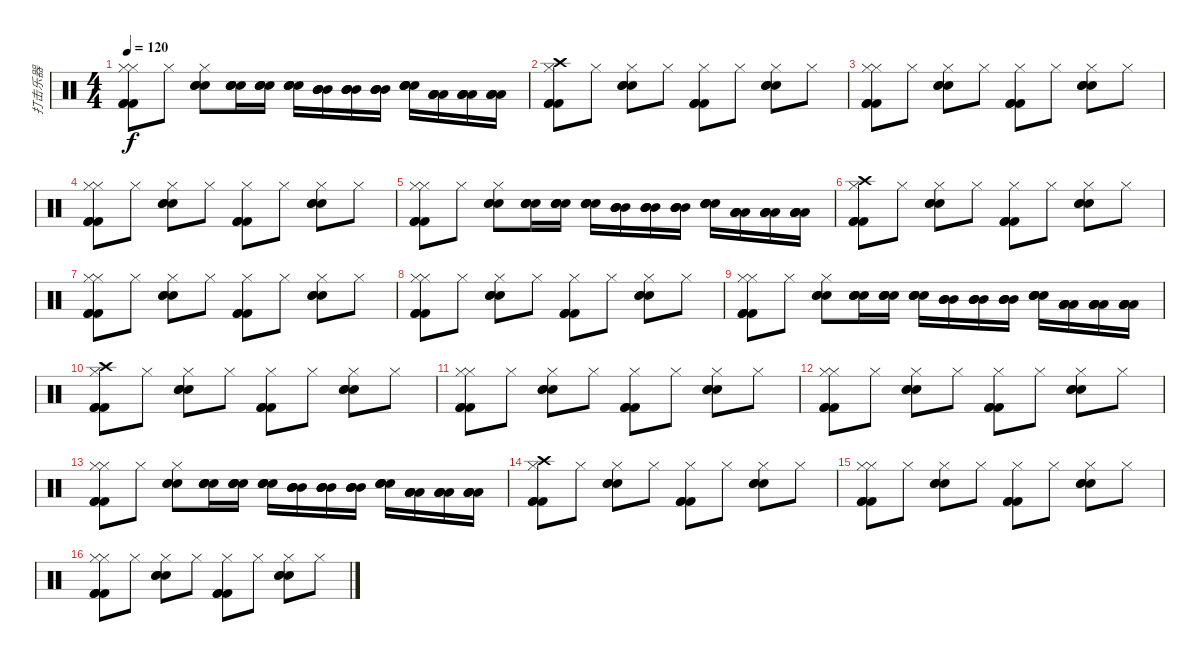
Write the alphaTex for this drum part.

\track ("打击乐器" "打击乐器") {instrument percussion}
\staff {score}
\articulation defaults
\ts (4 4)
\tempo 120
\clef neutral
\ks c
("Kick (hit) 2" "Kick (hit) 2" "Kick (hit) 2" "Hi-Hat (closed)" "Hi-Hat (closed)").8{dy f} "Hi-Hat (closed)".8 ("Snare (hit) 2" "Snare (hit) 2" "Snare (hit) 2" "Hi-Hat (closed)").8 ("Snare (hit) 2" "Snare (hit) 2" "Snare (hit) 2" "Snare (hit) 2").16 ("Snare (hit) 2" "Snare (hit) 2" "Snare (hit) 2" "Snare (hit) 2").16 ("Snare (hit) 2" "Snare (hit) 2" "Snare (hit) 2" "Snare (hit) 2").16 ("Mid Tom (hit)" "Mid Tom (hit)" "Mid Tom (hit)" "Mid Tom (hit)").16 ("Mid Tom (hit)" "Mid Tom (hit)" "Mid Tom (hit)" "Mid Tom (hit)").16 ("Mid Tom (hit)" "Mid Tom (hit)" "Mid Tom (hit)" "Mid Tom (hit)").16 ("Snare (hit) 2" "Snare (hit) 2" "Snare (hit) 2" "Snare (hit) 2").16 ("Low Tom (hit)" "Low Tom (hit)" "Low Tom (hit)" "Low Tom (hit)").16 ("Low Tom (hit)" "Low Tom (hit)" "Low Tom (hit)" "Low Tom (hit)").16 ("Low Tom (hit)" "Low Tom (hit)" "Low Tom (hit)" "Low Tom (hit)").16 |
("Kick (hit) 2" "Kick (hit) 2" "Kick (hit) 2" "Hi-Hat (closed)" "Crash high (hit)").8 "Hi-Hat (closed)".8 ("Snare (hit) 2" "Snare (hit) 2" "Snare (hit) 2" "Hi-Hat (closed)").8 "Hi-Hat (closed)".8 ("Kick (hit) 2" "Kick (hit) 2" "Kick (hit) 2" "Hi-Hat (closed)").8 "Hi-Hat (closed)".8 ("Snare (hit) 2" "Snare (hit) 2" "Snare (hit) 2" "Hi-Hat (closed)").8 "Hi-Hat (closed)".8 |
("Kick (hit) 2" "Kick (hit) 2" "Kick (hit) 2" "Hi-Hat (closed)" "Hi-Hat (closed)").8 "Hi-Hat (closed)".8 ("Snare (hit) 2" "Snare (hit) 2" "Snare (hit) 2" "Hi-Hat (closed)").8 "Hi-Hat (closed)".8 ("Kick (hit) 2" "Kick (hit) 2" "Kick (hit) 2" "Hi-Hat (closed)").8 "Hi-Hat (closed)".8 ("Snare (hit) 2" "Snare (hit) 2" "Snare (hit) 2" "Hi-Hat (closed)").8 "Hi-Hat (closed)".8 |
("Kick (hit) 2" "Kick (hit) 2" "Kick (hit) 2" "Hi-Hat (closed)" "Hi-Hat (closed)").8 "Hi-Hat (closed)".8 ("Snare (hit) 2" "Snare (hit) 2" "Snare (hit) 2" "Hi-Hat (closed)").8 "Hi-Hat (closed)".8 ("Kick (hit) 2" "Kick (hit) 2" "Kick (hit) 2" "Hi-Hat (closed)").8 "Hi-Hat (closed)".8 ("Snare (hit) 2" "Snare (hit) 2" "Snare (hit) 2" "Hi-Hat (closed)").8 "Hi-Hat (closed)".8 |
("Kick (hit) 2" "Kick (hit) 2" "Kick (hit) 2" "Hi-Hat (closed)" "Hi-Hat (closed)").8 "Hi-Hat (closed)".8 ("Snare (hit) 2" "Snare (hit) 2" "Snare (hit) 2" "Hi-Hat (closed)").8 ("Snare (hit) 2" "Snare (hit) 2" "Snare (hit) 2" "Snare (hit) 2").16 ("Snare (hit) 2" "Snare (hit) 2" "Snare (hit) 2" "Snare (hit) 2").16 ("Snare (hit) 2" "Snare (hit) 2" "Snare (hit) 2" "Snare (hit) 2").16 ("Mid Tom (hit)" "Mid Tom (hit)" "Mid Tom (hit)" "Mid Tom (hit)").16 ("Mid Tom (hit)" "Mid Tom (hit)" "Mid Tom (hit)" "Mid Tom (hit)").16 ("Mid Tom (hit)" "Mid Tom (hit)" "Mid Tom (hit)" "Mid Tom (hit)").16 ("Snare (hit) 2" "Snare (hit) 2" "Snare (hit) 2" "Snare (hit) 2").16 ("Low Tom (hit)" "Low Tom (hit)" "Low Tom (hit)" "Low Tom (hit)").16 ("Low Tom (hit)" "Low Tom (hit)" "Low Tom (hit)" "Low Tom (hit)").16 ("Low Tom (hit)" "Low Tom (hit)" "Low Tom (hit)" "Low Tom (hit)").16 |
("Kick (hit) 2" "Kick (hit) 2" "Kick (hit) 2" "Hi-Hat (closed)" "Crash high (hit)").8 "Hi-Hat (closed)".8 ("Snare (hit) 2" "Snare (hit) 2" "Snare (hit) 2" "Hi-Hat (closed)").8 "Hi-Hat (closed)".8 ("Kick (hit) 2" "Kick (hit) 2" "Kick (hit) 2" "Hi-Hat (closed)").8 "Hi-Hat (closed)".8 ("Snare (hit) 2" "Snare (hit) 2" "Snare (hit) 2" "Hi-Hat (closed)").8 "Hi-Hat (closed)".8 |
("Kick (hit) 2" "Kick (hit) 2" "Kick (hit) 2" "Hi-Hat (closed)" "Hi-Hat (closed)").8 "Hi-Hat (closed)".8 ("Snare (hit) 2" "Snare (hit) 2" "Snare (hit) 2" "Hi-Hat (closed)").8 "Hi-Hat (closed)".8 ("Kick (hit) 2" "Kick (hit) 2" "Kick (hit) 2" "Hi-Hat (closed)").8 "Hi-Hat (closed)".8 ("Snare (hit) 2" "Snare (hit) 2" "Snare (hit) 2" "Hi-Hat (closed)").8 "Hi-Hat (closed)".8 |
("Kick (hit) 2" "Kick (hit) 2" "Kick (hit) 2" "Hi-Hat (closed)" "Hi-Hat (closed)").8 "Hi-Hat (closed)".8 ("Snare (hit) 2" "Snare (hit) 2" "Snare (hit) 2" "Hi-Hat (closed)").8 "Hi-Hat (closed)".8 ("Kick (hit) 2" "Kick (hit) 2" "Kick (hit) 2" "Hi-Hat (closed)").8 "Hi-Hat (closed)".8 ("Snare (hit) 2" "Snare (hit) 2" "Snare (hit) 2" "Hi-Hat (closed)").8 "Hi-Hat (closed)".8 |
("Kick (hit) 2" "Kick (hit) 2" "Kick (hit) 2" "Hi-Hat (closed)" "Hi-Hat (closed)").8 "Hi-Hat (closed)".8 ("Snare (hit) 2" "Snare (hit) 2" "Snare (hit) 2" "Hi-Hat (closed)").8 ("Snare (hit) 2" "Snare (hit) 2" "Snare (hit) 2" "Snare (hit) 2").16 ("Snare (hit) 2" "Snare (hit) 2" "Snare (hit) 2" "Snare (hit) 2").16 ("Snare (hit) 2" "Snare (hit) 2" "Snare (hit) 2" "Snare (hit) 2").16 ("Mid Tom (hit)" "Mid Tom (hit)" "Mid Tom (hit)" "Mid Tom (hit)").16 ("Mid Tom (hit)" "Mid Tom (hit)" "Mid Tom (hit)" "Mid Tom (hit)").16 ("Mid Tom (hit)" "Mid Tom (hit)" "Mid Tom (hit)" "Mid Tom (hit)").16 ("Snare (hit) 2" "Snare (hit) 2" "Snare (hit) 2" "Snare (hit) 2").16 ("Low Tom (hit)" "Low Tom (hit)" "Low Tom (hit)" "Low Tom (hit)").16 ("Low Tom (hit)" "Low Tom (hit)" "Low Tom (hit)" "Low Tom (hit)").16 ("Low Tom (hit)" "Low Tom (hit)" "Low Tom (hit)" "Low Tom (hit)").16 |
("Kick (hit) 2" "Kick (hit) 2" "Kick (hit) 2" "Hi-Hat (closed)" "Crash high (hit)").8 "Hi-Hat (closed)".8 ("Snare (hit) 2" "Snare (hit) 2" "Snare (hit) 2" "Hi-Hat (closed)").8 "Hi-Hat (closed)".8 ("Kick (hit) 2" "Kick (hit) 2" "Kick (hit) 2" "Hi-Hat (closed)").8 "Hi-Hat (closed)".8 ("Snare (hit) 2" "Snare (hit) 2" "Snare (hit) 2" "Hi-Hat (closed)").8 "Hi-Hat (closed)".8 |
("Kick (hit) 2" "Kick (hit) 2" "Kick (hit) 2" "Hi-Hat (closed)" "Hi-Hat (closed)").8 "Hi-Hat (closed)".8 ("Snare (hit) 2" "Snare (hit) 2" "Snare (hit) 2" "Hi-Hat (closed)").8 "Hi-Hat (closed)".8 ("Kick (hit) 2" "Kick (hit) 2" "Kick (hit) 2" "Hi-Hat (closed)").8 "Hi-Hat (closed)".8 ("Snare (hit) 2" "Snare (hit) 2" "Snare (hit) 2" "Hi-Hat (closed)").8 "Hi-Hat (closed)".8 |
("Kick (hit) 2" "Kick (hit) 2" "Kick (hit) 2" "Hi-Hat (closed)" "Hi-Hat (closed)").8 "Hi-Hat (closed)".8 ("Snare (hit) 2" "Snare (hit) 2" "Snare (hit) 2" "Hi-Hat (closed)").8 "Hi-Hat (closed)".8 ("Kick (hit) 2" "Kick (hit) 2" "Kick (hit) 2" "Hi-Hat (closed)").8 "Hi-Hat (closed)".8 ("Snare (hit) 2" "Snare (hit) 2" "Snare (hit) 2" "Hi-Hat (closed)").8 "Hi-Hat (closed)".8 |
("Kick (hit) 2" "Kick (hit) 2" "Kick (hit) 2" "Hi-Hat (closed)" "Hi-Hat (closed)").8 "Hi-Hat (closed)".8 ("Snare (hit) 2" "Snare (hit) 2" "Snare (hit) 2" "Hi-Hat (closed)").8 ("Snare (hit) 2" "Snare (hit) 2" "Snare (hit) 2" "Snare (hit) 2").16 ("Snare (hit) 2" "Snare (hit) 2" "Snare (hit) 2" "Snare (hit) 2").16 ("Snare (hit) 2" "Snare (hit) 2" "Snare (hit) 2" "Snare (hit) 2").16 ("Mid Tom (hit)" "Mid Tom (hit)" "Mid Tom (hit)" "Mid Tom (hit)").16 ("Mid Tom (hit)" "Mid Tom (hit)" "Mid Tom (hit)" "Mid Tom (hit)").16 ("Mid Tom (hit)" "Mid Tom (hit)" "Mid Tom (hit)" "Mid Tom (hit)").16 ("Snare (hit) 2" "Snare (hit) 2" "Snare (hit) 2" "Snare (hit) 2").16 ("Low Tom (hit)" "Low Tom (hit)" "Low Tom (hit)" "Low Tom (hit)").16 ("Low Tom (hit)" "Low Tom (hit)" "Low Tom (hit)" "Low Tom (hit)").16 ("Low Tom (hit)" "Low Tom (hit)" "Low Tom (hit)" "Low Tom (hit)").16 |
("Kick (hit) 2" "Kick (hit) 2" "Kick (hit) 2" "Hi-Hat (closed)" "Crash high (hit)").8 "Hi-Hat (closed)".8 ("Snare (hit) 2" "Snare (hit) 2" "Snare (hit) 2" "Hi-Hat (closed)").8 "Hi-Hat (closed)".8 ("Kick (hit) 2" "Kick (hit) 2" "Kick (hit) 2" "Hi-Hat (closed)").8 "Hi-Hat (closed)".8 ("Snare (hit) 2" "Snare (hit) 2" "Snare (hit) 2" "Hi-Hat (closed)").8 "Hi-Hat (closed)".8 |
("Kick (hit) 2" "Kick (hit) 2" "Kick (hit) 2" "Hi-Hat (closed)" "Hi-Hat (closed)").8 "Hi-Hat (closed)".8 ("Snare (hit) 2" "Snare (hit) 2" "Snare (hit) 2" "Hi-Hat (closed)").8 "Hi-Hat (closed)".8 ("Kick (hit) 2" "Kick (hit) 2" "Kick (hit) 2" "Hi-Hat (closed)").8 "Hi-Hat (closed)".8 ("Snare (hit) 2" "Snare (hit) 2" "Snare (hit) 2" "Hi-Hat (closed)").8 "Hi-Hat (closed)".8 |
("Kick (hit) 2" "Kick (hit) 2" "Kick (hit) 2" "Hi-Hat (closed)" "Hi-Hat (closed)").8 "Hi-Hat (closed)".8 ("Snare (hit) 2" "Snare (hit) 2" "Snare (hit) 2" "Hi-Hat (closed)").8 "Hi-Hat (closed)".8 ("Kick (hit) 2" "Kick (hit) 2" "Kick (hit) 2" "Hi-Hat (closed)").8 "Hi-Hat (closed)".8 ("Snare (hit) 2" "Snare (hit) 2" "Snare (hit) 2" "Hi-Hat (closed)").8 "Hi-Hat (closed)".8
